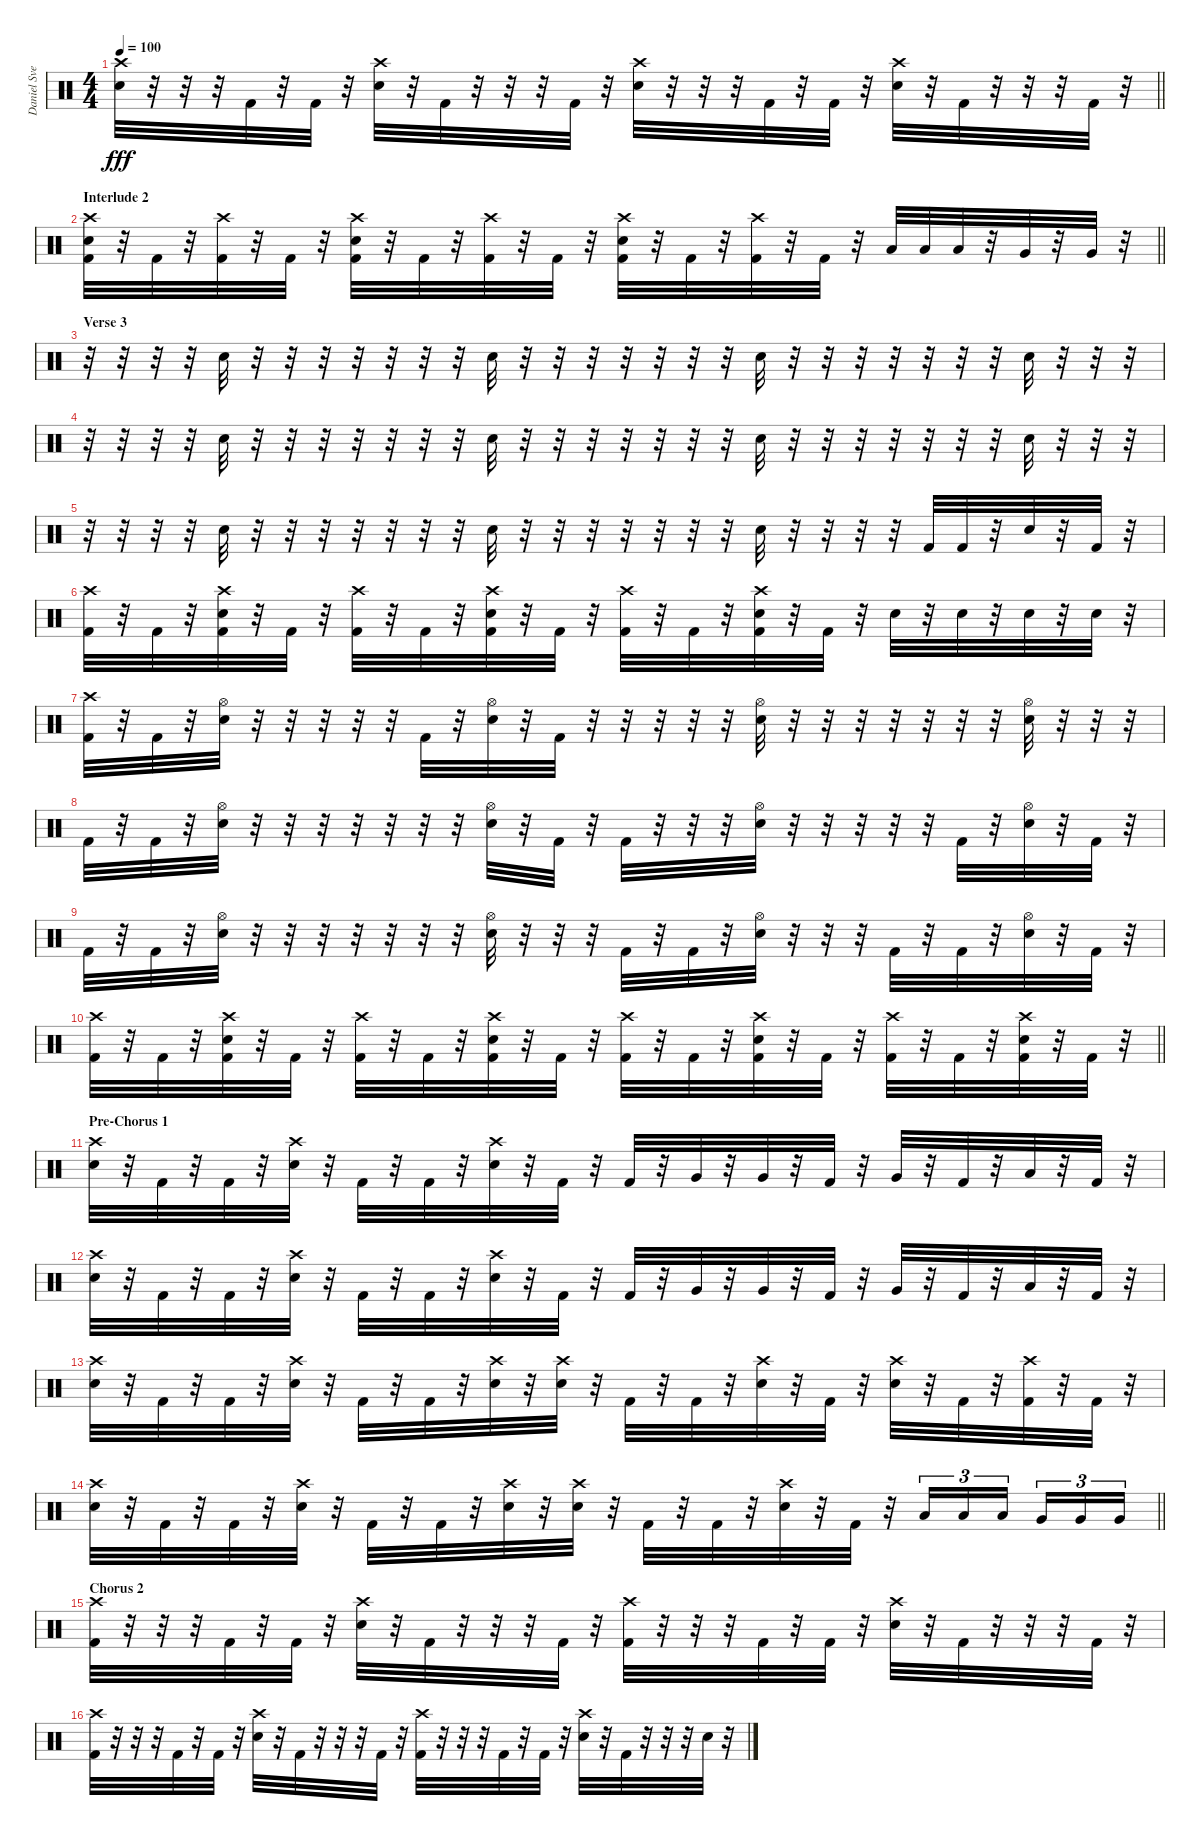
\track ("Daniel Svensson" "Daniel Sve") {instrument percussion}
\staff {score}
\articulation defaults
\ts (4 4)
\tempo 100
\clef neutral
\barLineRight lightlight
\ks c
("Crash high (hit)" "Electric Snare (hit)").32{dy fff} r.32 r.32 r.32 "Kick (hit) 2".32 r.32 "Kick (hit) 2".32 r.32 ("Crash high (hit)" "Electric Snare (hit)").32 r.32 "Kick (hit) 2".32 r.32 r.32 r.32 "Kick (hit) 2".32 r.32 ("Crash high (hit)" "Electric Snare (hit)").32 r.32 r.32 r.32 "Kick (hit) 2".32 r.32 "Kick (hit) 2".32 r.32 ("Crash high (hit)" "Electric Snare (hit)").32 r.32 "Kick (hit) 2".32 r.32 r.32 r.32 "Kick (hit) 2".32 r.32 |
\section ("" "Interlude 2")
\barLineRight lightlight
("Crash high (hit)" "Electric Snare (hit)" "Kick (hit) 2").32 r.32 "Kick (hit) 2".32 r.32 ("Crash high (hit)" "Kick (hit) 2").32 r.32 "Kick (hit) 2".32 r.32 ("Crash high (hit)" "Electric Snare (hit)" "Kick (hit) 2").32 r.32 "Kick (hit) 2".32 r.32 ("Crash high (hit)" "Kick (hit) 2").32 r.32 "Kick (hit) 2".32 r.32 ("Crash high (hit)" "Electric Snare (hit)" "Kick (hit) 2").32 r.32 "Kick (hit) 2".32 r.32 ("Crash high (hit)" "Kick (hit) 2").32 r.32 "Kick (hit) 2".32 r.32 "Low Tom (hit)".32 "Low Tom (hit)".32 "Low Tom (hit)".32 r.32 "Very Low Tom (hit)".32 r.32 "Very Low Tom (hit)".32 r.32 |
\section ("" "Verse 3")
r.32 r.32 r.32 r.32 "Electric Snare (hit)".32 r.32 r.32 r.32 r.32 r.32 r.32 r.32 "Electric Snare (hit)".32 r.32 r.32 r.32 r.32 r.32 r.32 r.32 "Electric Snare (hit)".32 r.32 r.32 r.32 r.32 r.32 r.32 r.32 "Electric Snare (hit)".32 r.32 r.32 r.32 |
r.32 r.32 r.32 r.32 "Electric Snare (hit)".32 r.32 r.32 r.32 r.32 r.32 r.32 r.32 "Electric Snare (hit)".32 r.32 r.32 r.32 r.32 r.32 r.32 r.32 "Electric Snare (hit)".32 r.32 r.32 r.32 r.32 r.32 r.32 r.32 "Electric Snare (hit)".32 r.32 r.32 r.32 |
r.32 r.32 r.32 r.32 "Electric Snare (hit)".32 r.32 r.32 r.32 r.32 r.32 r.32 r.32 "Electric Snare (hit)".32 r.32 r.32 r.32 r.32 r.32 r.32 r.32 "Electric Snare (hit)".32 r.32 r.32 r.32 r.32 "Kick (hit) 2".32 "Kick (hit) 2".32 r.32 "Electric Snare (hit)".32 r.32 "Kick (hit) 2".32 r.32 |
("Crash high (hit)" "Kick (hit) 2").32 r.32 "Kick (hit) 2".32 r.32 ("Crash high (hit)" "Electric Snare (hit)" "Kick (hit) 2").32 r.32 "Kick (hit) 2".32 r.32 ("Crash high (hit)" "Kick (hit) 2").32 r.32 "Kick (hit) 2".32 r.32 ("Crash high (hit)" "Electric Snare (hit)" "Kick (hit) 2").32 r.32 "Kick (hit) 2".32 r.32 ("Crash high (hit)" "Kick (hit) 2").32 r.32 "Kick (hit) 2".32 r.32 ("Crash high (hit)" "Electric Snare (hit)" "Kick (hit) 2").32 r.32 "Kick (hit) 2".32 r.32 "Electric Snare (hit)".32 r.32 "Electric Snare (hit)".32 r.32 "Electric Snare (hit)".32 r.32 "Electric Snare (hit)".32 r.32 |
("Crash high (hit)" "Kick (hit) 2").32 r.32 "Kick (hit) 2".32 r.32 ("Hi-Hat (open)" "Electric Snare (hit)").32 r.32 r.32 r.32 r.32 r.32 "Kick (hit) 2".32 r.32 ("Hi-Hat (open)" "Electric Snare (hit)").32 r.32 "Kick (hit) 2".32 r.32 r.32 r.32 r.32 r.32 ("Hi-Hat (open)" "Electric Snare (hit)").32 r.32 r.32 r.32 r.32 r.32 r.32 r.32 ("Hi-Hat (open)" "Electric Snare (hit)").32 r.32 r.32 r.32 |
"Kick (hit) 2".32 r.32 "Kick (hit) 2".32 r.32 ("Hi-Hat (open)" "Electric Snare (hit)").32 r.32 r.32 r.32 r.32 r.32 r.32 r.32 ("Hi-Hat (open)" "Electric Snare (hit)").32 r.32 "Kick (hit) 2".32 r.32 "Kick (hit) 2".32 r.32 r.32 r.32 ("Hi-Hat (open)" "Electric Snare (hit)").32 r.32 r.32 r.32 r.32 r.32 "Kick (hit) 2".32 r.32 ("Hi-Hat (open)" "Electric Snare (hit)").32 r.32 "Kick (hit) 2".32 r.32 |
"Kick (hit) 2".32 r.32 "Kick (hit) 2".32 r.32 ("Hi-Hat (open)" "Electric Snare (hit)").32 r.32 r.32 r.32 r.32 r.32 r.32 r.32 ("Hi-Hat (open)" "Electric Snare (hit)").32 r.32 r.32 r.32 "Kick (hit) 2".32 r.32 "Kick (hit) 2".32 r.32 ("Hi-Hat (open)" "Electric Snare (hit)").32 r.32 r.32 r.32 "Kick (hit) 2".32 r.32 "Kick (hit) 2".32 r.32 ("Hi-Hat (open)" "Electric Snare (hit)").32 r.32 "Kick (hit) 2".32 r.32 |
\barLineRight lightlight
("Crash high (hit)" "Kick (hit) 2").32 r.32 "Kick (hit) 2".32 r.32 ("Crash high (hit)" "Electric Snare (hit)" "Kick (hit) 2").32 r.32 "Kick (hit) 2".32 r.32 ("Crash high (hit)" "Kick (hit) 2").32 r.32 "Kick (hit) 2".32 r.32 ("Crash high (hit)" "Electric Snare (hit)" "Kick (hit) 2").32 r.32 "Kick (hit) 2".32 r.32 ("Crash high (hit)" "Kick (hit) 2").32 r.32 "Kick (hit) 2".32 r.32 ("Crash high (hit)" "Electric Snare (hit)" "Kick (hit) 2").32 r.32 "Kick (hit) 2".32 r.32 ("Crash high (hit)" "Kick (hit) 2").32 r.32 "Kick (hit) 2".32 r.32 ("Crash high (hit)" "Electric Snare (hit)" "Kick (hit) 2").32 r.32 "Kick (hit) 2".32 r.32 |
\section ("" "Pre-Chorus 1")
("Crash high (hit)" "Electric Snare (hit)").32 r.32 "Kick (hit) 2".32 r.32 "Kick (hit) 2".32 r.32 ("Crash high (hit)" "Electric Snare (hit)").32 r.32 "Kick (hit) 2".32 r.32 "Kick (hit) 2".32 r.32 ("Crash high (hit)" "Electric Snare (hit)").32 r.32 "Kick (hit) 2".32 r.32 "Kick (hit) 2".32 r.32 "Very Low Tom (hit)".32 r.32 "Very Low Tom (hit)".32 r.32 "Kick (hit) 2".32 r.32 "Very Low Tom (hit)".32 r.32 "Kick (hit) 2".32 r.32 "Low Floor Tom (hit)".32 r.32 "Kick (hit) 2".32 r.32 |
("Crash high (hit)" "Electric Snare (hit)").32 r.32 "Kick (hit) 2".32 r.32 "Kick (hit) 2".32 r.32 ("Crash high (hit)" "Electric Snare (hit)").32 r.32 "Kick (hit) 2".32 r.32 "Kick (hit) 2".32 r.32 ("Crash high (hit)" "Electric Snare (hit)").32 r.32 "Kick (hit) 2".32 r.32 "Kick (hit) 2".32 r.32 "Very Low Tom (hit)".32 r.32 "Very Low Tom (hit)".32 r.32 "Kick (hit) 2".32 r.32 "Very Low Tom (hit)".32 r.32 "Kick (hit) 2".32 r.32 "Low Floor Tom (hit)".32 r.32 "Kick (hit) 2".32 r.32 |
("Crash high (hit)" "Electric Snare (hit)").32 r.32 "Kick (hit) 2".32 r.32 "Kick (hit) 2".32 r.32 ("Crash high (hit)" "Electric Snare (hit)").32 r.32 "Kick (hit) 2".32 r.32 "Kick (hit) 2".32 r.32 ("Crash high (hit)" "Electric Snare (hit)").32 r.32 ("Crash high (hit)" "Electric Snare (hit)").32 r.32 "Kick (hit) 2".32 r.32 "Kick (hit) 2".32 r.32 ("Crash high (hit)" "Electric Snare (hit)").32 r.32 "Kick (hit) 2".32 r.32 ("Crash high (hit)" "Electric Snare (hit)").32 r.32 "Kick (hit) 2".32 r.32 ("Crash high (hit)" "Kick (hit) 2").32 r.32 "Kick (hit) 2".32 r.32 |
\barLineRight lightlight
("Crash high (hit)" "Electric Snare (hit)").32 r.32 "Kick (hit) 2".32 r.32 "Kick (hit) 2".32 r.32 ("Crash high (hit)" "Electric Snare (hit)").32 r.32 "Kick (hit) 2".32 r.32 "Kick (hit) 2".32 r.32 ("Crash high (hit)" "Electric Snare (hit)").32 r.32 ("Crash high (hit)" "Electric Snare (hit)").32 r.32 "Kick (hit) 2".32 r.32 "Kick (hit) 2".32 r.32 ("Crash high (hit)" "Electric Snare (hit)").32 r.32 "Kick (hit) 2".32 r.32 "Low Tom (hit)".16{tu (3 2)} "Low Tom (hit)".16{tu (3 2)} "Low Tom (hit)".16{tu (3 2) beam splitsecondary} "Very Low Tom (hit)".16{tu (3 2)} "Very Low Tom (hit)".16{tu (3 2)} "Very Low Tom (hit)".16{tu (3 2)} |
\section ("" "Chorus 2")
("Crash high (hit)" "Kick (hit) 2").32 r.32 r.32 r.32 "Kick (hit) 2".32 r.32 "Kick (hit) 2".32 r.32 ("Crash high (hit)" "Electric Snare (hit)").32 r.32 "Kick (hit) 2".32 r.32 r.32 r.32 "Kick (hit) 2".32 r.32 ("Crash high (hit)" "Kick (hit) 2").32 r.32 r.32 r.32 "Kick (hit) 2".32 r.32 "Kick (hit) 2".32 r.32 ("Crash high (hit)" "Electric Snare (hit)").32 r.32 "Kick (hit) 2".32 r.32 r.32 r.32 "Kick (hit) 2".32 r.32 |
("Crash high (hit)" "Kick (hit) 2").32 r.32 r.32 r.32 "Kick (hit) 2".32 r.32 "Kick (hit) 2".32 r.32 ("Crash high (hit)" "Electric Snare (hit)").32 r.32 "Kick (hit) 2".32 r.32 r.32 r.32 "Kick (hit) 2".32 r.32 ("Crash high (hit)" "Kick (hit) 2").32 r.32 r.32 r.32 "Kick (hit) 2".32 r.32 "Kick (hit) 2".32 r.32 ("Crash high (hit)" "Electric Snare (hit)").32 r.32 "Kick (hit) 2".32 r.32 r.32 r.32 "Electric Snare (hit)".32 r.32
